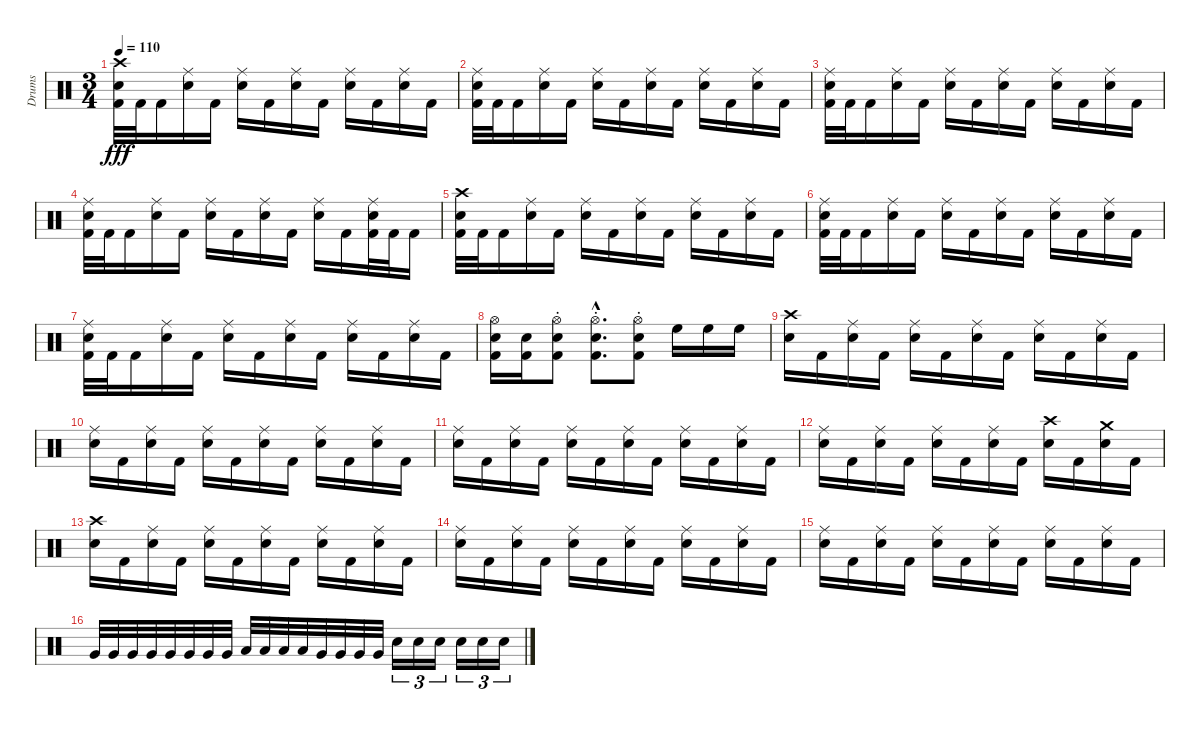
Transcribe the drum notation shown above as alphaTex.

\track ("Drums" "Drums") {instrument percussion}
\staff {score}
\articulation defaults
\ts (3 4)
\tempo 110
\clef neutral
\ks c
("Crash high (hit)" "Electric Snare (hit)" "Kick (hit) 2").32{dy fff} "Kick (hit) 2".32 "Kick (hit) 2".16 ("Ride (middle)" "Electric Snare (hit)").16 "Kick (hit) 2".16 ("Ride (middle)" "Electric Snare (hit)").16 "Kick (hit) 2".16 ("Ride (middle)" "Electric Snare (hit)").16 "Kick (hit) 2".16 ("Ride (middle)" "Electric Snare (hit)").16 "Kick (hit) 2".16 ("Ride (middle)" "Electric Snare (hit)").16 "Kick (hit) 2".16 |
("Ride (middle)" "Electric Snare (hit)" "Kick (hit) 2").32 "Kick (hit) 2".32 "Kick (hit) 2".16 ("Ride (middle)" "Electric Snare (hit)").16 "Kick (hit) 2".16 ("Ride (middle)" "Electric Snare (hit)").16 "Kick (hit) 2".16 ("Ride (middle)" "Electric Snare (hit)").16 "Kick (hit) 2".16 ("Ride (middle)" "Electric Snare (hit)").16 "Kick (hit) 2".16 ("Ride (middle)" "Electric Snare (hit)").16 "Kick (hit) 2".16 |
("Ride (middle)" "Electric Snare (hit)" "Kick (hit) 2").32 "Kick (hit) 2".32 "Kick (hit) 2".16 ("Ride (middle)" "Electric Snare (hit)").16 "Kick (hit) 2".16 ("Ride (middle)" "Electric Snare (hit)").16 "Kick (hit) 2".16 ("Ride (middle)" "Electric Snare (hit)").16 "Kick (hit) 2".16 ("Ride (middle)" "Electric Snare (hit)").16 "Kick (hit) 2".16 ("Ride (middle)" "Electric Snare (hit)").16 "Kick (hit) 2".16 |
("Ride (middle)" "Electric Snare (hit)" "Kick (hit) 2").32 "Kick (hit) 2".32 "Kick (hit) 2".16 ("Ride (middle)" "Electric Snare (hit)").16 "Kick (hit) 2".16 ("Ride (middle)" "Electric Snare (hit)").16 "Kick (hit) 2".16 ("Ride (middle)" "Electric Snare (hit)").16 "Kick (hit) 2".16 ("Ride (middle)" "Electric Snare (hit)").16 "Kick (hit) 2".16 ("Ride (middle)" "Electric Snare (hit)" "Kick (hit) 2").32 "Kick (hit) 2".32 "Kick (hit) 2".16 |
("Crash high (hit)" "Electric Snare (hit)" "Kick (hit) 2").32 "Kick (hit) 2".32 "Kick (hit) 2".16 ("Ride (middle)" "Electric Snare (hit)").16 "Kick (hit) 2".16 ("Ride (middle)" "Electric Snare (hit)").16 "Kick (hit) 2".16 ("Ride (middle)" "Electric Snare (hit)").16 "Kick (hit) 2".16 ("Ride (middle)" "Electric Snare (hit)").16 "Kick (hit) 2".16 ("Ride (middle)" "Electric Snare (hit)").16 "Kick (hit) 2".16 |
("Ride (middle)" "Electric Snare (hit)" "Kick (hit) 2").32 "Kick (hit) 2".32 "Kick (hit) 2".16 ("Ride (middle)" "Electric Snare (hit)").16 "Kick (hit) 2".16 ("Ride (middle)" "Electric Snare (hit)").16 "Kick (hit) 2".16 ("Ride (middle)" "Electric Snare (hit)").16 "Kick (hit) 2".16 ("Ride (middle)" "Electric Snare (hit)").16 "Kick (hit) 2".16 ("Ride (middle)" "Electric Snare (hit)").16 "Kick (hit) 2".16 |
("Ride (middle)" "Electric Snare (hit)" "Kick (hit) 2").32 "Kick (hit) 2".32 "Kick (hit) 2".16 ("Ride (middle)" "Electric Snare (hit)").16 "Kick (hit) 2".16 ("Ride (middle)" "Electric Snare (hit)").16 "Kick (hit) 2".16 ("Ride (middle)" "Electric Snare (hit)").16 "Kick (hit) 2".16 ("Ride (middle)" "Electric Snare (hit)").16 "Kick (hit) 2".16 ("Ride (middle)" "Electric Snare (hit)").16 "Kick (hit) 2".16 |
("Hi-Hat (open)" "Electric Snare (hit)" "Kick (hit) 2").16 ("Electric Snare (hit)" "Kick (hit) 2").16 ("Hi-Hat (open)"{st} "Electric Snare (hit)"{st} "Kick (hit) 2"{st}).8 ("Hi-Hat (open)"{hac st} "Electric Snare (hit)"{hac st} "Kick (hit) 2"{hac st}).8{d} ("Hi-Hat (open)"{st} "Electric Snare (hit)"{st} "Kick (hit) 2"{st}).8 "High Floor Tom (hit)".16 "High Floor Tom (hit)".16 "High Floor Tom (hit)".16 |
("Crash high (hit)" "Electric Snare (hit)").16 "Kick (hit) 2".16 ("Ride (middle)" "Electric Snare (hit)").16 "Kick (hit) 2".16 ("Ride (middle)" "Electric Snare (hit)").16 "Kick (hit) 2".16 ("Ride (middle)" "Electric Snare (hit)").16 "Kick (hit) 2".16 ("Ride (middle)" "Electric Snare (hit)").16 "Kick (hit) 2".16 ("Ride (middle)" "Electric Snare (hit)").16 "Kick (hit) 2".16 |
("Ride (middle)" "Electric Snare (hit)").16 "Kick (hit) 2".16 ("Ride (middle)" "Electric Snare (hit)").16 "Kick (hit) 2".16 ("Ride (middle)" "Electric Snare (hit)").16 "Kick (hit) 2".16 ("Ride (middle)" "Electric Snare (hit)").16 "Kick (hit) 2".16 ("Ride (middle)" "Electric Snare (hit)").16 "Kick (hit) 2".16 ("Ride (middle)" "Electric Snare (hit)").16 "Kick (hit) 2".16 |
("Ride (middle)" "Electric Snare (hit)").16 "Kick (hit) 2".16 ("Ride (middle)" "Electric Snare (hit)").16 "Kick (hit) 2".16 ("Ride (middle)" "Electric Snare (hit)").16 "Kick (hit) 2".16 ("Ride (middle)" "Electric Snare (hit)").16 "Kick (hit) 2".16 ("Ride (middle)" "Electric Snare (hit)").16 "Kick (hit) 2".16 ("Ride (middle)" "Electric Snare (hit)").16 "Kick (hit) 2".16 |
("Ride (middle)" "Electric Snare (hit)").16 "Kick (hit) 2".16 ("Ride (middle)" "Electric Snare (hit)").16 "Kick (hit) 2".16 ("Ride (middle)" "Electric Snare (hit)").16 "Kick (hit) 2".16 ("Ride (middle)" "Electric Snare (hit)").16 "Kick (hit) 2".16 ("Crash high (hit)" "Electric Snare (hit)").16 "Kick (hit) 2".16 ("Crash medium (hit)" "Electric Snare (hit)").16 "Kick (hit) 2".16 |
("Crash high (hit)" "Electric Snare (hit)").16 "Kick (hit) 2".16 ("Ride (middle)" "Electric Snare (hit)").16 "Kick (hit) 2".16 ("Ride (middle)" "Electric Snare (hit)").16 "Kick (hit) 2".16 ("Ride (middle)" "Electric Snare (hit)").16 "Kick (hit) 2".16 ("Ride (middle)" "Electric Snare (hit)").16 "Kick (hit) 2".16 ("Ride (middle)" "Electric Snare (hit)").16 "Kick (hit) 2".16 |
("Ride (middle)" "Electric Snare (hit)").16 "Kick (hit) 2".16 ("Ride (middle)" "Electric Snare (hit)").16 "Kick (hit) 2".16 ("Ride (middle)" "Electric Snare (hit)").16 "Kick (hit) 2".16 ("Ride (middle)" "Electric Snare (hit)").16 "Kick (hit) 2".16 ("Ride (middle)" "Electric Snare (hit)").16 "Kick (hit) 2".16 ("Ride (middle)" "Electric Snare (hit)").16 "Kick (hit) 2".16 |
("Ride (middle)" "Electric Snare (hit)").16 "Kick (hit) 2".16 ("Ride (middle)" "Electric Snare (hit)").16 "Kick (hit) 2".16 ("Ride (middle)" "Electric Snare (hit)").16 "Kick (hit) 2".16 ("Ride (middle)" "Electric Snare (hit)").16 "Kick (hit) 2".16 ("Ride (middle)" "Electric Snare (hit)").16 "Kick (hit) 2".16 ("Ride (middle)" "Electric Snare (hit)").16 "Kick (hit) 2".16 |
"Very Low Tom (hit)".32 "Very Low Tom (hit)".32 "Very Low Tom (hit)".32 "Very Low Tom (hit)".32 "Very Low Tom (hit)".32 "Very Low Tom (hit)".32 "Very Low Tom (hit)".32 "Very Low Tom (hit)".32 "Low Tom (hit)".32 "Low Tom (hit)".32 "Low Tom (hit)".32 "Low Tom (hit)".32 "Very Low Tom (hit)".32 "Very Low Tom (hit)".32 "Very Low Tom (hit)".32 "Very Low Tom (hit)".32 "Electric Snare (hit)".16{tu (3 2)} "Electric Snare (hit)".16{tu (3 2)} "Electric Snare (hit)".16{tu (3 2)} "Electric Snare (hit)".16{tu (3 2)} "Electric Snare (hit)".16{tu (3 2)} "Electric Snare (hit)".16{tu (3 2)}
